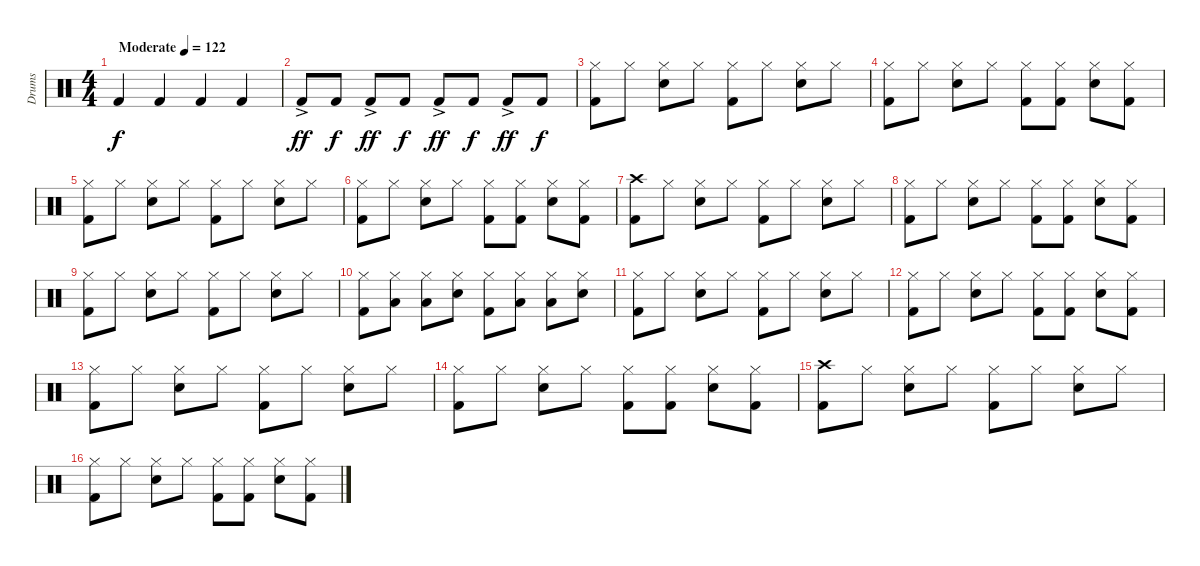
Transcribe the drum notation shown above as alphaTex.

\track ("Drums" "Drums") {instrument percussion}
\staff {score}
\articulation defaults
\ts (4 4)
\tempo (122 "Moderate")
\clef neutral
\ks c "Kick (hit) 2".4{dy f volume 10} "Kick (hit) 2".4 "Kick (hit) 2".4 "Kick (hit) 2".4
|
"Kick (hit) 2"{ac}.8{dy ff} "Kick (hit) 2".8{dy f} "Kick (hit) 2"{ac}.8{dy ff} "Kick (hit) 2".8{dy f} "Kick (hit) 2"{ac}.8{dy ff} "Kick (hit) 2".8{dy f} "Kick (hit) 2"{ac}.8{dy ff} "Kick (hit) 2".8{dy f} |
("Hi-Hat (closed)" "Kick (hit) 2").8 "Hi-Hat (closed)".8 ("Hi-Hat (closed)" "Electric Snare (hit)").8 "Hi-Hat (closed)".8 ("Hi-Hat (closed)" "Kick (hit) 2").8 "Hi-Hat (closed)".8 ("Hi-Hat (closed)" "Electric Snare (hit)").8 "Hi-Hat (closed)".8 |
("Hi-Hat (closed)" "Kick (hit) 2").8 "Hi-Hat (closed)".8 ("Hi-Hat (closed)" "Electric Snare (hit)").8 "Hi-Hat (closed)".8 ("Hi-Hat (closed)" "Kick (hit) 2").8 ("Hi-Hat (closed)" "Kick (hit) 2").8 ("Hi-Hat (closed)" "Electric Snare (hit)").8 ("Hi-Hat (closed)" "Kick (hit) 2").8 |
("Hi-Hat (closed)" "Kick (hit) 2").8 "Hi-Hat (closed)".8 ("Hi-Hat (closed)" "Electric Snare (hit)").8 "Hi-Hat (closed)".8 ("Hi-Hat (closed)" "Kick (hit) 2").8 "Hi-Hat (closed)".8 ("Hi-Hat (closed)" "Electric Snare (hit)").8 "Hi-Hat (closed)".8 |
("Hi-Hat (closed)" "Kick (hit) 2").8 "Hi-Hat (closed)".8 ("Hi-Hat (closed)" "Electric Snare (hit)").8 "Hi-Hat (closed)".8 ("Hi-Hat (closed)" "Kick (hit) 2").8 ("Hi-Hat (closed)" "Kick (hit) 2").8 ("Hi-Hat (closed)" "Electric Snare (hit)").8 ("Hi-Hat (closed)" "Kick (hit) 2").8 |
("Crash high (hit)" "Kick (hit) 2").8 "Hi-Hat (closed)".8 ("Hi-Hat (closed)" "Electric Snare (hit)").8 "Hi-Hat (closed)".8 ("Hi-Hat (closed)" "Kick (hit) 2").8 "Hi-Hat (closed)".8 ("Hi-Hat (closed)" "Electric Snare (hit)").8 "Hi-Hat (closed)".8 |
("Hi-Hat (closed)" "Kick (hit) 2").8 "Hi-Hat (closed)".8 ("Hi-Hat (closed)" "Electric Snare (hit)").8 "Hi-Hat (closed)".8 ("Hi-Hat (closed)" "Kick (hit) 2").8 ("Hi-Hat (closed)" "Kick (hit) 2").8 ("Hi-Hat (closed)" "Electric Snare (hit)").8 ("Hi-Hat (closed)" "Kick (hit) 2").8 |
("Hi-Hat (closed)" "Kick (hit) 2").8 "Hi-Hat (closed)".8 ("Hi-Hat (closed)" "Electric Snare (hit)").8 "Hi-Hat (closed)".8 ("Hi-Hat (closed)" "Kick (hit) 2").8 "Hi-Hat (closed)".8 ("Hi-Hat (closed)" "Electric Snare (hit)").8 "Hi-Hat (closed)".8 |
("Hi-Hat (closed)" "Kick (hit) 2").8 ("Hi-Hat (closed)" "Low Floor Tom (hit)").8 ("Hi-Hat (closed)" "Low Floor Tom (hit)").8 ("Hi-Hat (closed)" "Electric Snare (hit)").8 ("Hi-Hat (closed)" "Kick (hit) 2").8 ("Hi-Hat (closed)" "Low Floor Tom (hit)").8 ("Hi-Hat (closed)" "Low Floor Tom (hit)").8 ("Hi-Hat (closed)" "Electric Snare (hit)").8 |
("Hi-Hat (closed)" "Kick (hit) 2").8 "Hi-Hat (closed)".8 ("Hi-Hat (closed)" "Electric Snare (hit)").8 "Hi-Hat (closed)".8 ("Hi-Hat (closed)" "Kick (hit) 2").8 "Hi-Hat (closed)".8 ("Hi-Hat (closed)" "Electric Snare (hit)").8 "Hi-Hat (closed)".8 |
("Hi-Hat (closed)" "Kick (hit) 2").8 "Hi-Hat (closed)".8 ("Hi-Hat (closed)" "Electric Snare (hit)").8 "Hi-Hat (closed)".8 ("Hi-Hat (closed)" "Kick (hit) 2").8 ("Hi-Hat (closed)" "Kick (hit) 2").8 ("Hi-Hat (closed)" "Electric Snare (hit)").8 ("Hi-Hat (closed)" "Kick (hit) 2").8 |
("Hi-Hat (closed)" "Kick (hit) 2").8 "Hi-Hat (closed)".8 ("Hi-Hat (closed)" "Electric Snare (hit)").8 "Hi-Hat (closed)".8 ("Hi-Hat (closed)" "Kick (hit) 2").8 "Hi-Hat (closed)".8 ("Hi-Hat (closed)" "Electric Snare (hit)").8 "Hi-Hat (closed)".8 |
("Hi-Hat (closed)" "Kick (hit) 2").8 "Hi-Hat (closed)".8 ("Hi-Hat (closed)" "Electric Snare (hit)").8 "Hi-Hat (closed)".8 ("Hi-Hat (closed)" "Kick (hit) 2").8 ("Hi-Hat (closed)" "Kick (hit) 2").8 ("Hi-Hat (closed)" "Electric Snare (hit)").8 ("Hi-Hat (closed)" "Kick (hit) 2").8 |
("Crash high (hit)" "Kick (hit) 2").8 "Hi-Hat (closed)".8 ("Hi-Hat (closed)" "Electric Snare (hit)").8 "Hi-Hat (closed)".8 ("Hi-Hat (closed)" "Kick (hit) 2").8 "Hi-Hat (closed)".8 ("Hi-Hat (closed)" "Electric Snare (hit)").8 "Hi-Hat (closed)".8 |
("Hi-Hat (closed)" "Kick (hit) 2").8 "Hi-Hat (closed)".8 ("Hi-Hat (closed)" "Electric Snare (hit)").8 "Hi-Hat (closed)".8 ("Hi-Hat (closed)" "Kick (hit) 2").8 ("Hi-Hat (closed)" "Kick (hit) 2").8 ("Hi-Hat (closed)" "Electric Snare (hit)").8 ("Hi-Hat (closed)" "Kick (hit) 2").8
